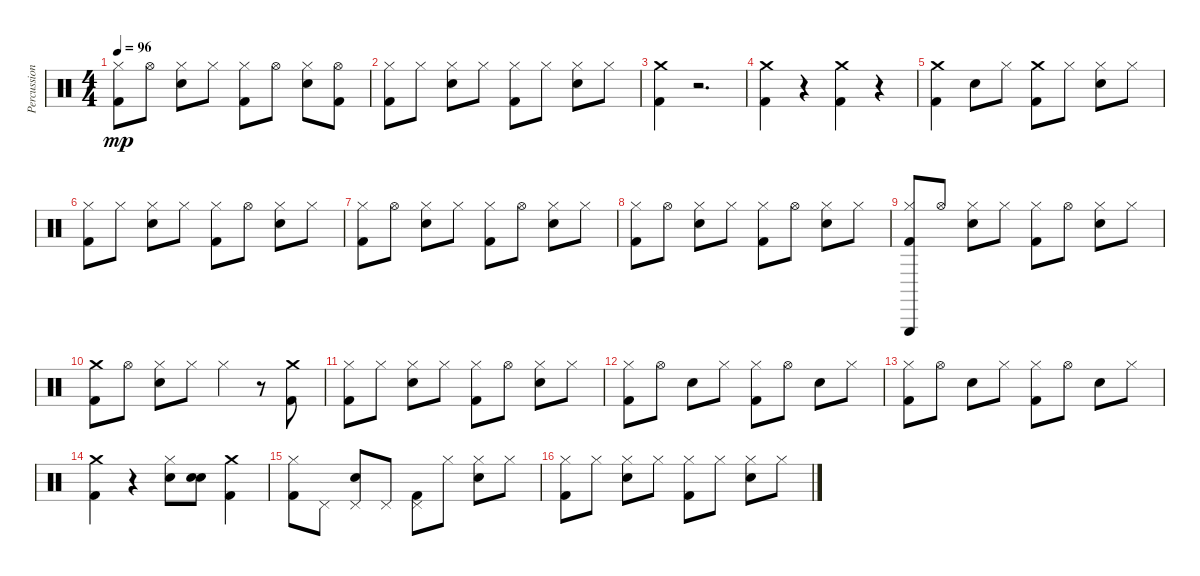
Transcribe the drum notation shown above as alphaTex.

\track ("Percussion" "Percussion") {instrument percussion}
\staff {score}
\articulation defaults
\ts (4 4)
\tempo 96
\clef neutral
\ks c
("Hi-Hat (closed)" "Kick (hit) 2").8{dy mp} "Hi-Hat (open)".8 ("Hi-Hat (closed)" "Snare (hit) 2").8 "Hi-Hat (closed)".8 ("Hi-Hat (closed)" "Kick (hit) 2").8 "Hi-Hat (open)".8 ("Hi-Hat (closed)" "Snare (hit) 2").8 ("Hi-Hat (open)" "Kick (hit) 2").8 |
("Hi-Hat (closed)" "Kick (hit) 2").8 "Hi-Hat (closed)".8 ("Hi-Hat (closed)" "Snare (hit) 2").8 "Hi-Hat (closed)".8 ("Hi-Hat (closed)" "Kick (hit) 2").8 "Hi-Hat (closed)".8 ("Hi-Hat (closed)" "Snare (hit) 2").8 "Hi-Hat (closed)".8 |
("Crash medium (hit)" "Kick (hit) 2").4 r.2{d} |
("Crash medium (hit)" "Kick (hit) 2").4 r.4 ("Crash medium (hit)" "Kick (hit) 2").4 r.4 |
("Crash medium (hit)" "Kick (hit) 2").4 "Snare (hit) 2".8 "Hi-Hat (closed)".8 ("Crash medium (hit)" "Kick (hit) 2").8 "Hi-Hat (closed)".8 ("Hi-Hat (closed)" "Snare (hit) 2").8 "Hi-Hat (closed)".8 |
("Hi-Hat (closed)" "Kick (hit) 2").8 "Hi-Hat (closed)".8 ("Hi-Hat (closed)" "Snare (hit) 2").8 "Hi-Hat (closed)".8 ("Hi-Hat (closed)" "Kick (hit) 2").8 "Hi-Hat (open)".8 ("Hi-Hat (closed)" "Snare (hit) 2").8 "Hi-Hat (closed)".8 |
("Hi-Hat (closed)" "Kick (hit) 2").8 "Hi-Hat (open)".8 ("Hi-Hat (closed)" "Snare (hit) 2").8 "Hi-Hat (closed)".8 ("Hi-Hat (closed)" "Kick (hit) 2").8 "Hi-Hat (open)".8 ("Hi-Hat (closed)" "Snare (hit) 2").8 "Hi-Hat (closed)".8 |
("Hi-Hat (closed)" "Kick (hit) 2").8 "Hi-Hat (open)".8 ("Hi-Hat (closed)" "Snare (hit) 2").8 "Hi-Hat (closed)".8 ("Hi-Hat (closed)" "Kick (hit) 2").8 "Hi-Hat (open)".8 ("Hi-Hat (closed)" "Snare (hit) 2").8 "Hi-Hat (closed)".8 |
("Triangle (hit)" "Hi-Hat (closed)" "Kick (hit) 2").8 "Hi-Hat (open)".8 ("Hi-Hat (closed)" "Snare (hit) 2").8 "Hi-Hat (closed)".8 ("Hi-Hat (closed)" "Kick (hit) 2").8 "Hi-Hat (open)".8 ("Hi-Hat (closed)" "Snare (hit) 2").8 "Hi-Hat (closed)".8 |
("Crash medium (hit)" "Kick (hit) 2").8 "Hi-Hat (open)".8 ("Hi-Hat (closed)" "Snare (hit) 2").8 "Hi-Hat (closed)".8 "Hi-Hat (closed)".4 r.8 ("Crash medium (hit)" "Kick (hit) 2").8 |
("Hi-Hat (closed)" "Kick (hit) 2").8 "Hi-Hat (closed)".8 ("Hi-Hat (closed)" "Snare (hit) 2").8 "Hi-Hat (closed)".8 ("Hi-Hat (closed)" "Kick (hit) 2").8 "Hi-Hat (open)".8 ("Hi-Hat (closed)" "Snare (hit) 2").8 "Hi-Hat (closed)".8 |
("Hi-Hat (closed)" "Kick (hit) 2").8 "Hi-Hat (open)".8 "Snare (hit) 2".8 "Hi-Hat (closed)".8 ("Hi-Hat (closed)" "Kick (hit) 2").8 "Hi-Hat (open)".8 "Snare (hit) 2".8 "Hi-Hat (closed)".8 |
("Hi-Hat (closed)" "Kick (hit) 2").8 "Hi-Hat (open)".8 "Snare (hit) 2".8 "Hi-Hat (closed)".8 ("Hi-Hat (closed)" "Kick (hit) 2").8 "Hi-Hat (open)".8 "Snare (hit) 2".8 "Hi-Hat (closed)".8 |
("Crash medium (hit)" "Kick (hit) 2").4 r.4 ("Hi-Hat (closed)" "Snare (hit) 2").8 ("Snare (hit) 2" "Snare (hit) 2").8 ("Crash medium (hit)" "Kick (hit) 2").4 |
("Hi-Hat (closed)" "Kick (hit) 2").8 "Pedal Hi-Hat (hit)".8 ("Pedal Hi-Hat (hit)" "Snare (hit) 2").8 "Pedal Hi-Hat (hit)".8 ("Pedal Hi-Hat (hit)" "Kick (hit) 2").8 "Hi-Hat (closed)".8 ("Hi-Hat (closed)" "Snare (hit) 2").8 "Hi-Hat (closed)".8 |
("Hi-Hat (closed)" "Kick (hit) 2").8 "Hi-Hat (closed)".8 ("Hi-Hat (closed)" "Snare (hit) 2").8 "Hi-Hat (closed)".8 ("Hi-Hat (closed)" "Kick (hit) 2").8 "Hi-Hat (closed)".8 ("Hi-Hat (closed)" "Snare (hit) 2").8 "Hi-Hat (closed)".8
